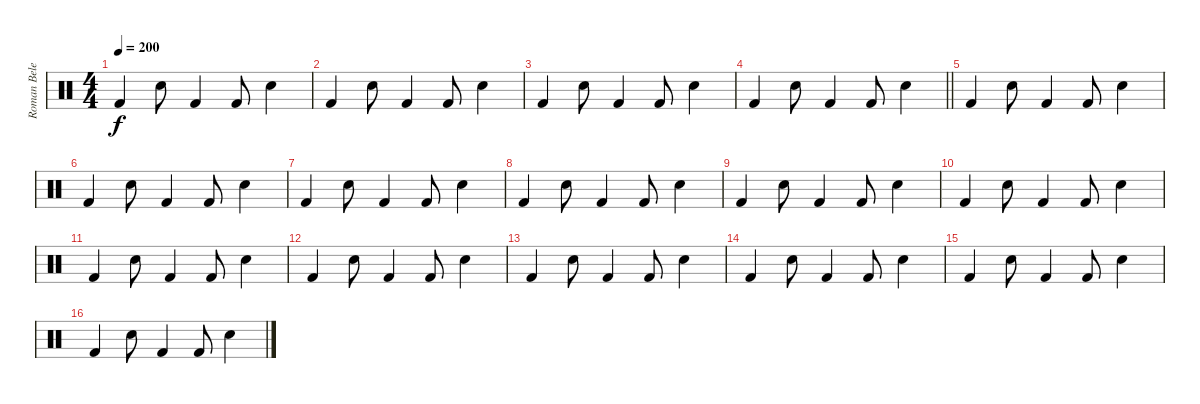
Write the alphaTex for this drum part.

\track ("Roman Belenkiy" "Roman Bele") {instrument percussion}
\staff {score}
\articulation defaults
\ts (4 4)
\tempo 200
\clef neutral
\ks c "Kick (hit) 2".4{dy f volume 7} "Snare (hit) 2".8 "Kick (hit) 2".4 "Kick (hit) 2".8 "Snare (hit) 2".4
|
"Kick (hit) 2".4 "Snare (hit) 2".8 "Kick (hit) 2".4 "Kick (hit) 2".8 "Snare (hit) 2".4 |
"Kick (hit) 2".4 "Snare (hit) 2".8 "Kick (hit) 2".4 "Kick (hit) 2".8 "Snare (hit) 2".4 |
\barLineRight lightlight "Kick (hit) 2".4 "Snare (hit) 2".8 "Kick (hit) 2".4 "Kick (hit) 2".8 "Snare (hit) 2".4
|
\section ("" "")
"Kick (hit) 2".4{volume 5} "Snare (hit) 2".8 "Kick (hit) 2".4 "Kick (hit) 2".8 "Snare (hit) 2".4 |
"Kick (hit) 2".4 "Snare (hit) 2".8 "Kick (hit) 2".4 "Kick (hit) 2".8 "Snare (hit) 2".4 |
"Kick (hit) 2".4 "Snare (hit) 2".8 "Kick (hit) 2".4 "Kick (hit) 2".8 "Snare (hit) 2".4 |
"Kick (hit) 2".4 "Snare (hit) 2".8 "Kick (hit) 2".4 "Kick (hit) 2".8 "Snare (hit) 2".4 |
"Kick (hit) 2".4{volume 3} "Snare (hit) 2".8 "Kick (hit) 2".4 "Kick (hit) 2".8 "Snare (hit) 2".4 |
"Kick (hit) 2".4 "Snare (hit) 2".8 "Kick (hit) 2".4 "Kick (hit) 2".8 "Snare (hit) 2".4 |
"Kick (hit) 2".4 "Snare (hit) 2".8 "Kick (hit) 2".4 "Kick (hit) 2".8 "Snare (hit) 2".4 |
"Kick (hit) 2".4 "Snare (hit) 2".8 "Kick (hit) 2".4 "Kick (hit) 2".8 "Snare (hit) 2".4 |
"Kick (hit) 2".4{volume 1} "Snare (hit) 2".8 "Kick (hit) 2".4 "Kick (hit) 2".8 "Snare (hit) 2".4 |
"Kick (hit) 2".4 "Snare (hit) 2".8 "Kick (hit) 2".4 "Kick (hit) 2".8 "Snare (hit) 2".4 |
"Kick (hit) 2".4 "Snare (hit) 2".8 "Kick (hit) 2".4 "Kick (hit) 2".8 "Snare (hit) 2".4 |
"Kick (hit) 2".4 "Snare (hit) 2".8 "Kick (hit) 2".4 "Kick (hit) 2".8 "Snare (hit) 2".4
